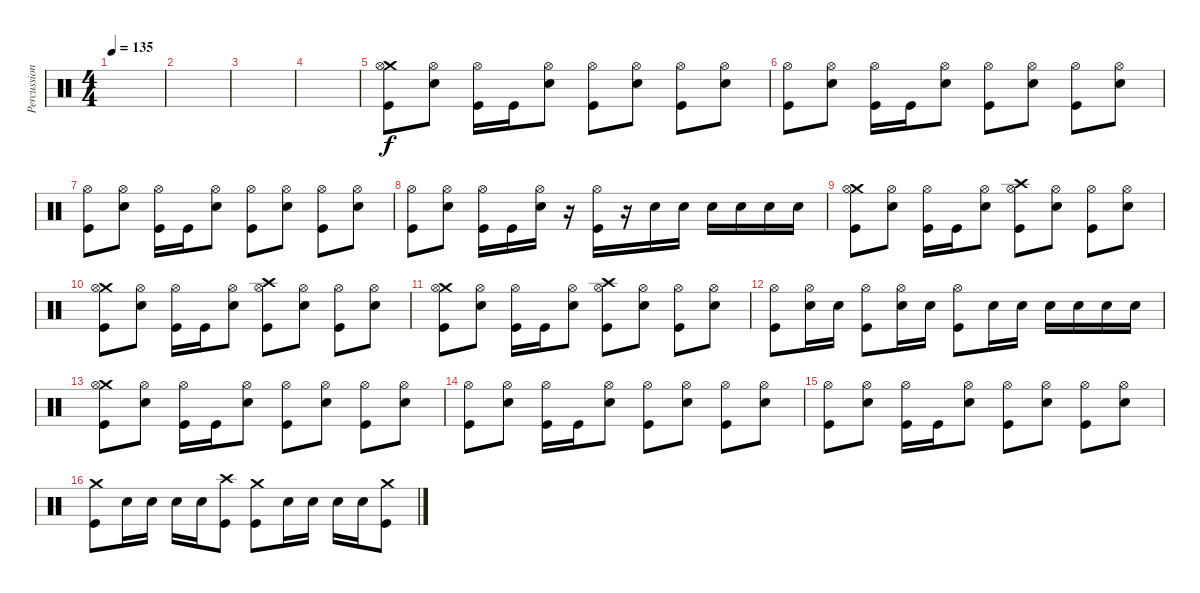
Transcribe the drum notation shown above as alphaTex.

\track ("Percussions" "Percussion") {instrument percussion}
\staff {score}
\articulation defaults
\ts (4 4)
\tempo 135
\clef neutral
\ks c
|
|
|
|
("Crash medium (hit)" "Hi-Hat (open)" "Kick (hit)").8 ("Hi-Hat (open)" "Snare (hit) 2").8 ("Hi-Hat (open)" "Kick (hit)").16 "Kick (hit)".16 ("Hi-Hat (open)" "Snare (hit) 2").8 ("Hi-Hat (open)" "Kick (hit)").8 ("Hi-Hat (open)" "Snare (hit) 2").8 ("Hi-Hat (open)" "Kick (hit)").8 ("Hi-Hat (open)" "Snare (hit) 2").8 |
("Hi-Hat (open)" "Kick (hit)").8 ("Hi-Hat (open)" "Snare (hit) 2").8 ("Hi-Hat (open)" "Kick (hit)").16 "Kick (hit)".16 ("Hi-Hat (open)" "Snare (hit) 2").8 ("Hi-Hat (open)" "Kick (hit)").8 ("Hi-Hat (open)" "Snare (hit) 2").8 ("Hi-Hat (open)" "Kick (hit)").8 ("Hi-Hat (open)" "Snare (hit) 2").8 |
("Hi-Hat (open)" "Kick (hit)").8 ("Hi-Hat (open)" "Snare (hit) 2").8 ("Hi-Hat (open)" "Kick (hit)").16 "Kick (hit)".16 ("Hi-Hat (open)" "Snare (hit) 2").8 ("Hi-Hat (open)" "Kick (hit)").8 ("Hi-Hat (open)" "Snare (hit) 2").8 ("Hi-Hat (open)" "Kick (hit)").8 ("Hi-Hat (open)" "Snare (hit) 2").8 |
("Hi-Hat (open)" "Kick (hit)").8 ("Hi-Hat (open)" "Snare (hit) 2").8 ("Hi-Hat (open)" "Kick (hit)").16 "Kick (hit)".16 ("Hi-Hat (open)" "Snare (hit) 2").16 r.16 ("Hi-Hat (open)" "Kick (hit)").16 r.16 "Snare (hit) 2".16 "Snare (hit) 2".16 "Snare (hit) 2".16 "Snare (hit) 2".16 "Snare (hit) 2".16 "Snare (hit) 2".16 |
("Crash medium (hit)" "Hi-Hat (open)" "Kick (hit)").8 ("Hi-Hat (open)" "Snare (hit) 2").8 ("Hi-Hat (open)" "Kick (hit)").16 "Kick (hit)".16 ("Hi-Hat (open)" "Snare (hit) 2").8 ("Crash high (hit)" "Hi-Hat (open)" "Kick (hit)").8 ("Hi-Hat (open)" "Snare (hit) 2").8 ("Hi-Hat (open)" "Kick (hit)").8 ("Hi-Hat (open)" "Snare (hit) 2").8 |
("Crash medium (hit)" "Hi-Hat (open)" "Kick (hit)").8 ("Hi-Hat (open)" "Snare (hit) 2").8 ("Hi-Hat (open)" "Kick (hit)").16 "Kick (hit)".16 ("Hi-Hat (open)" "Snare (hit) 2").8 ("Crash high (hit)" "Hi-Hat (open)" "Kick (hit)").8 ("Hi-Hat (open)" "Snare (hit) 2").8 ("Hi-Hat (open)" "Kick (hit)").8 ("Hi-Hat (open)" "Snare (hit) 2").8 |
("Crash medium (hit)" "Hi-Hat (open)" "Kick (hit)").8 ("Hi-Hat (open)" "Snare (hit) 2").8 ("Hi-Hat (open)" "Kick (hit)").16 "Kick (hit)".16 ("Hi-Hat (open)" "Snare (hit) 2").8 ("Crash high (hit)" "Hi-Hat (open)" "Kick (hit)").8 ("Hi-Hat (open)" "Snare (hit) 2").8 ("Hi-Hat (open)" "Kick (hit)").8 ("Hi-Hat (open)" "Snare (hit) 2").8 |
("Hi-Hat (open)" "Kick (hit)").8 ("Hi-Hat (open)" "Snare (hit) 2").16 "Snare (hit) 2".16 ("Hi-Hat (open)" "Kick (hit)").8 ("Hi-Hat (open)" "Snare (hit) 2").16 "Snare (hit) 2".16 ("Hi-Hat (open)" "Kick (hit)").8 "Snare (hit) 2".16 "Snare (hit) 2".16 "Snare (hit) 2".16 "Snare (hit) 2".16 "Snare (hit) 2".16 "Snare (hit) 2".16 |
("Crash medium (hit)" "Hi-Hat (open)" "Kick (hit)").8 ("Hi-Hat (open)" "Snare (hit) 2").8 ("Hi-Hat (open)" "Kick (hit)").16 "Kick (hit)".16 ("Hi-Hat (open)" "Snare (hit) 2").8 ("Hi-Hat (open)" "Kick (hit)").8 ("Hi-Hat (open)" "Snare (hit) 2").8 ("Hi-Hat (open)" "Kick (hit)").8 ("Hi-Hat (open)" "Snare (hit) 2").8 |
("Hi-Hat (open)" "Kick (hit)").8 ("Hi-Hat (open)" "Snare (hit) 2").8 ("Hi-Hat (open)" "Kick (hit)").16 "Kick (hit)".16 ("Hi-Hat (open)" "Snare (hit) 2").8 ("Hi-Hat (open)" "Kick (hit)").8 ("Hi-Hat (open)" "Snare (hit) 2").8 ("Hi-Hat (open)" "Kick (hit)").8 ("Hi-Hat (open)" "Snare (hit) 2").8 |
("Hi-Hat (open)" "Kick (hit)").8 ("Hi-Hat (open)" "Snare (hit) 2").8 ("Hi-Hat (open)" "Kick (hit)").16 "Kick (hit)".16 ("Hi-Hat (open)" "Snare (hit) 2").8 ("Hi-Hat (open)" "Kick (hit)").8 ("Hi-Hat (open)" "Snare (hit) 2").8 ("Hi-Hat (open)" "Kick (hit)").8 ("Hi-Hat (open)" "Snare (hit) 2").8 |
("Crash medium (hit)" "Kick (hit)").8 "Snare (hit) 2".16 "Snare (hit) 2".16 "Snare (hit) 2".16 "Snare (hit) 2".16 ("Crash high (hit)" "Kick (hit)").8 ("Crash medium (hit)" "Kick (hit)").8 "Snare (hit) 2".16 "Snare (hit) 2".16 "Snare (hit) 2".16 "Snare (hit) 2".16 ("Crash medium (hit)" "Kick (hit)").8
